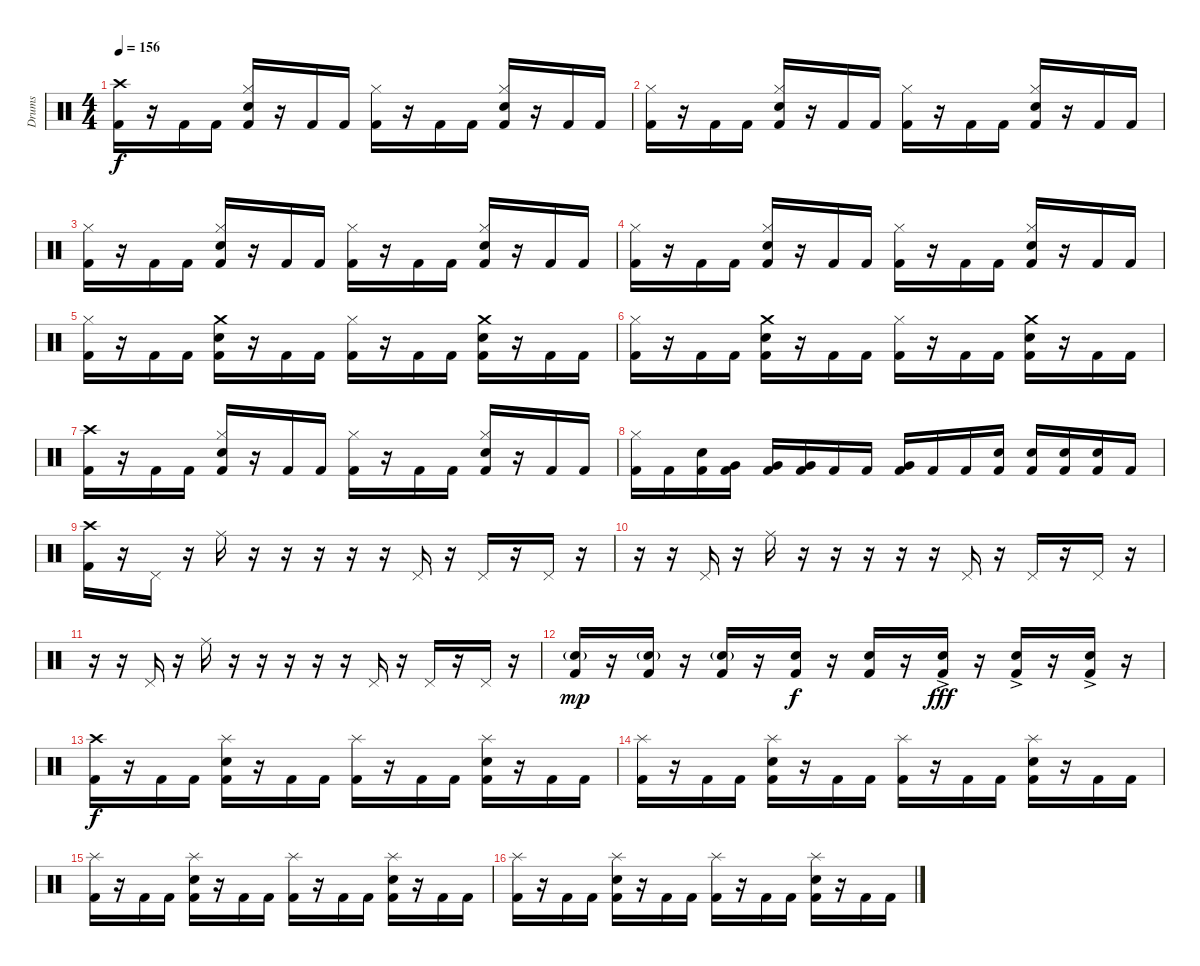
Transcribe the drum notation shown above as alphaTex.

\track ("Drums" "Drums") {instrument percussion}
\staff {score}
\articulation defaults
\ts (4 4)
\tempo 156
\clef neutral
\ks c
("Crash high (hit)" "Kick (hit) 2").16{dy f} r.16 "Kick (hit) 2".16 "Kick (hit) 2".16 ("Hi-Hat (closed)" "Snare (hit) 2" "Kick (hit) 2").16 r.16 "Kick (hit) 2".16 "Kick (hit) 2".16 ("Hi-Hat (closed)" "Kick (hit) 2").16 r.16 "Kick (hit) 2".16 "Kick (hit) 2".16 ("Hi-Hat (closed)" "Snare (hit) 2" "Kick (hit) 2").16 r.16 "Kick (hit) 2".16 "Kick (hit) 2".16 |
("Hi-Hat (closed)" "Kick (hit) 2").16 r.16 "Kick (hit) 2".16 "Kick (hit) 2".16 ("Hi-Hat (closed)" "Snare (hit) 2" "Kick (hit) 2").16 r.16 "Kick (hit) 2".16 "Kick (hit) 2".16 ("Hi-Hat (closed)" "Kick (hit) 2").16 r.16 "Kick (hit) 2".16 "Kick (hit) 2".16 ("Hi-Hat (closed)" "Snare (hit) 2" "Kick (hit) 2").16 r.16 "Kick (hit) 2".16 "Kick (hit) 2".16 |
("Hi-Hat (closed)" "Kick (hit) 2").16 r.16 "Kick (hit) 2".16 "Kick (hit) 2".16 ("Hi-Hat (closed)" "Snare (hit) 2" "Kick (hit) 2").16 r.16 "Kick (hit) 2".16 "Kick (hit) 2".16 ("Hi-Hat (closed)" "Kick (hit) 2").16 r.16 "Kick (hit) 2".16 "Kick (hit) 2".16 ("Hi-Hat (closed)" "Snare (hit) 2" "Kick (hit) 2").16 r.16 "Kick (hit) 2".16 "Kick (hit) 2".16 |
("Hi-Hat (closed)" "Kick (hit) 2").16 r.16 "Kick (hit) 2".16 "Kick (hit) 2".16 ("Hi-Hat (closed)" "Snare (hit) 2" "Kick (hit) 2").16 r.16 "Kick (hit) 2".16 "Kick (hit) 2".16 ("Hi-Hat (closed)" "Kick (hit) 2").16 r.16 "Kick (hit) 2".16 "Kick (hit) 2".16 ("Hi-Hat (closed)" "Snare (hit) 2" "Kick (hit) 2").16 r.16 "Kick (hit) 2".16 "Kick (hit) 2".16 |
("Hi-Hat (closed)" "Kick (hit) 2").16 r.16 "Kick (hit) 2".16 "Kick (hit) 2".16 ("Crash medium (hit)" "Snare (hit) 2" "Kick (hit) 2").16 r.16 "Kick (hit) 2".16 "Kick (hit) 2".16 ("Hi-Hat (closed)" "Kick (hit) 2").16 r.16 "Kick (hit) 2".16 "Kick (hit) 2".16 ("Crash medium (hit)" "Snare (hit) 2" "Kick (hit) 2").16 r.16 "Kick (hit) 2".16 "Kick (hit) 2".16 |
("Hi-Hat (closed)" "Kick (hit) 2").16 r.16 "Kick (hit) 2".16 "Kick (hit) 2".16 ("Crash medium (hit)" "Snare (hit) 2" "Kick (hit) 2").16 r.16 "Kick (hit) 2".16 "Kick (hit) 2".16 ("Hi-Hat (closed)" "Kick (hit) 2").16 r.16 "Kick (hit) 2".16 "Kick (hit) 2".16 ("Crash medium (hit)" "Snare (hit) 2" "Kick (hit) 2").16 r.16 "Kick (hit) 2".16 "Kick (hit) 2".16 |
("Crash high (hit)" "Kick (hit) 2").16 r.16 "Kick (hit) 2".16 "Kick (hit) 2".16 ("Hi-Hat (closed)" "Snare (hit) 2" "Kick (hit) 2").16 r.16 "Kick (hit) 2".16 "Kick (hit) 2".16 ("Hi-Hat (closed)" "Kick (hit) 2").16 r.16 "Kick (hit) 2".16 "Kick (hit) 2".16 ("Hi-Hat (closed)" "Snare (hit) 2" "Kick (hit) 2").16 r.16 "Kick (hit) 2".16 "Kick (hit) 2".16 |
("Hi-Hat (closed)" "Kick (hit) 2").16 "Kick (hit) 2".16 ("Snare (hit) 2" "Kick (hit) 2").16 ("Very Low Tom (hit)" "Kick (hit) 2").16 ("Very Low Tom (hit)" "Kick (hit) 2").16 ("Very Low Tom (hit)" "Kick (hit) 2").16 "Kick (hit) 2".16 "Kick (hit) 2".16 ("Very Low Tom (hit)" "Kick (hit) 2").16 "Kick (hit) 2".16 "Kick (hit) 2".16 ("Snare (hit) 2" "Kick (hit) 2").16 ("Snare (hit) 2" "Kick (hit) 2").16 ("Snare (hit) 2" "Kick (hit) 2").16 ("Snare (hit) 2" "Kick (hit) 2").16 "Kick (hit) 2".16 |
\section ("" "")
("Crash high (hit)" "Kick (hit) 2").16 r.16 "Pedal Hi-Hat (hit)".16 r.16 "Ride (middle)".16 r.16 r.16 r.16 r.16 r.16 "Pedal Hi-Hat (hit)".16 r.16 "Pedal Hi-Hat (hit)".16 r.16 "Pedal Hi-Hat (hit)".16 r.16 |
r.16 r.16 "Pedal Hi-Hat (hit)".16 r.16 "Ride (middle)".16 r.16 r.16 r.16 r.16 r.16 "Pedal Hi-Hat (hit)".16 r.16 "Pedal Hi-Hat (hit)".16 r.16 "Pedal Hi-Hat (hit)".16 r.16 |
r.16 r.16 "Pedal Hi-Hat (hit)".16 r.16 "Ride (middle)".16 r.16 r.16 r.16 r.16 r.16 "Pedal Hi-Hat (hit)".16 r.16 "Pedal Hi-Hat (hit)".16 r.16 "Pedal Hi-Hat (hit)".16 r.16 |
("Snare (hit) 2"{g} "Kick (hit) 2").16{dy mp} r.16 ("Snare (hit) 2"{g} "Kick (hit) 2").16 r.16 ("Snare (hit) 2"{g} "Kick (hit) 2").16 r.16 ("Snare (hit) 2" "Kick (hit) 2").16{dy f} r.16 ("Snare (hit) 2" "Kick (hit) 2").16 r.16 ("Snare (hit) 2"{ac} "Kick (hit) 2").16{dy fff} r.16 ("Snare (hit) 2"{ac} "Kick (hit) 2").16 r.16 ("Snare (hit) 2"{ac} "Kick (hit) 2").16 r.16 |
\section ("" "")
("Crash high (hit)" "Kick (hit) 2").16{dy f} r.16 "Kick (hit) 2".16 "Kick (hit) 2".16 ("Splash (hit)" "Snare (hit) 2" "Kick (hit) 2").16 r.16 "Kick (hit) 2".16 "Kick (hit) 2".16 ("Splash (hit)" "Kick (hit) 2").16 r.16 "Kick (hit) 2".16 "Kick (hit) 2".16 ("Splash (hit)" "Snare (hit) 2" "Kick (hit) 2").16 r.16 "Kick (hit) 2".16 "Kick (hit) 2".16 |
("Splash (hit)" "Kick (hit) 2").16 r.16 "Kick (hit) 2".16 "Kick (hit) 2".16 ("Splash (hit)" "Snare (hit) 2" "Kick (hit) 2").16 r.16 "Kick (hit) 2".16 "Kick (hit) 2".16 ("Splash (hit)" "Kick (hit) 2").16 r.16 "Kick (hit) 2".16 "Kick (hit) 2".16 ("Splash (hit)" "Snare (hit) 2" "Kick (hit) 2").16 r.16 "Kick (hit) 2".16 "Kick (hit) 2".16 |
("Splash (hit)" "Kick (hit) 2").16 r.16 "Kick (hit) 2".16 "Kick (hit) 2".16 ("Splash (hit)" "Snare (hit) 2" "Kick (hit) 2").16 r.16 "Kick (hit) 2".16 "Kick (hit) 2".16 ("Splash (hit)" "Kick (hit) 2").16 r.16 "Kick (hit) 2".16 "Kick (hit) 2".16 ("Splash (hit)" "Snare (hit) 2" "Kick (hit) 2").16 r.16 "Kick (hit) 2".16 "Kick (hit) 2".16 |
("Splash (hit)" "Kick (hit) 2").16 r.16 "Kick (hit) 2".16 "Kick (hit) 2".16 ("Splash (hit)" "Snare (hit) 2" "Kick (hit) 2").16 r.16 "Kick (hit) 2".16 "Kick (hit) 2".16 ("Splash (hit)" "Kick (hit) 2").16 r.16 "Kick (hit) 2".16 "Kick (hit) 2".16 ("Splash (hit)" "Snare (hit) 2" "Kick (hit) 2").16 r.16 "Kick (hit) 2".16 "Kick (hit) 2".16
